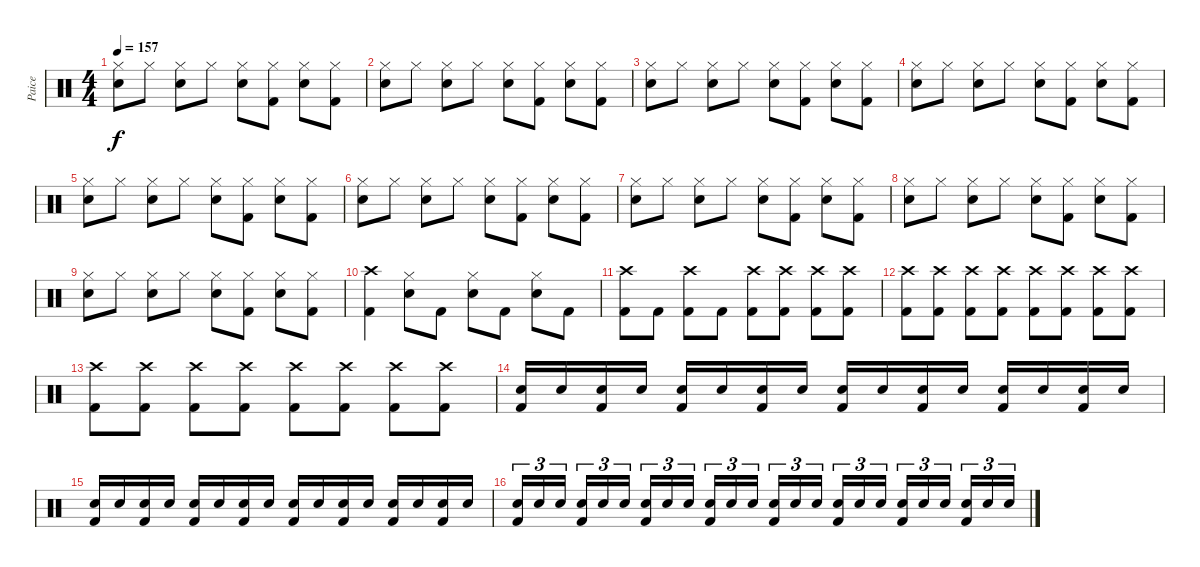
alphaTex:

\track ("Paice" "Paice") {instrument percussion}
\staff {score}
\articulation defaults
\ts (4 4)
\tempo 157
\clef neutral
\ks c
("Hi-Hat (closed)" "Snare (hit) 2").8{dy f} "Hi-Hat (closed)".8 ("Hi-Hat (closed)" "Snare (hit) 2").8 "Hi-Hat (closed)".8 ("Hi-Hat (closed)" "Snare (hit) 2").8 ("Hi-Hat (closed)" "Kick (hit) 2").8 ("Hi-Hat (closed)" "Snare (hit) 2").8 ("Hi-Hat (closed)" "Kick (hit) 2").8 |
("Hi-Hat (closed)" "Snare (hit) 2").8 "Hi-Hat (closed)".8 ("Hi-Hat (closed)" "Snare (hit) 2").8 "Hi-Hat (closed)".8 ("Hi-Hat (closed)" "Snare (hit) 2").8 ("Hi-Hat (closed)" "Kick (hit) 2").8 ("Hi-Hat (closed)" "Snare (hit) 2").8 ("Hi-Hat (closed)" "Kick (hit) 2").8 |
("Hi-Hat (closed)" "Snare (hit) 2").8 "Hi-Hat (closed)".8 ("Hi-Hat (closed)" "Snare (hit) 2").8 "Hi-Hat (closed)".8 ("Hi-Hat (closed)" "Snare (hit) 2").8 ("Hi-Hat (closed)" "Kick (hit) 2").8 ("Hi-Hat (closed)" "Snare (hit) 2").8 ("Hi-Hat (closed)" "Kick (hit) 2").8 |
("Hi-Hat (closed)" "Snare (hit) 2").8 "Hi-Hat (closed)".8 ("Hi-Hat (closed)" "Snare (hit) 2").8 "Hi-Hat (closed)".8 ("Hi-Hat (closed)" "Snare (hit) 2").8 ("Hi-Hat (closed)" "Kick (hit) 2").8 ("Hi-Hat (closed)" "Snare (hit) 2").8 ("Hi-Hat (closed)" "Kick (hit) 2").8 |
("Hi-Hat (closed)" "Snare (hit) 2").8 "Hi-Hat (closed)".8 ("Hi-Hat (closed)" "Snare (hit) 2").8 "Hi-Hat (closed)".8 ("Hi-Hat (closed)" "Snare (hit) 2").8 ("Hi-Hat (closed)" "Kick (hit) 2").8 ("Hi-Hat (closed)" "Snare (hit) 2").8 ("Hi-Hat (closed)" "Kick (hit) 2").8 |
("Hi-Hat (closed)" "Snare (hit) 2").8 "Hi-Hat (closed)".8 ("Hi-Hat (closed)" "Snare (hit) 2").8 "Hi-Hat (closed)".8 ("Hi-Hat (closed)" "Snare (hit) 2").8 ("Hi-Hat (closed)" "Kick (hit) 2").8 ("Hi-Hat (closed)" "Snare (hit) 2").8 ("Hi-Hat (closed)" "Kick (hit) 2").8 |
("Hi-Hat (closed)" "Snare (hit) 2").8 "Hi-Hat (closed)".8 ("Hi-Hat (closed)" "Snare (hit) 2").8 "Hi-Hat (closed)".8 ("Hi-Hat (closed)" "Snare (hit) 2").8 ("Hi-Hat (closed)" "Kick (hit) 2").8 ("Hi-Hat (closed)" "Snare (hit) 2").8 ("Hi-Hat (closed)" "Kick (hit) 2").8 |
("Hi-Hat (closed)" "Snare (hit) 2").8 "Hi-Hat (closed)".8 ("Hi-Hat (closed)" "Snare (hit) 2").8 "Hi-Hat (closed)".8 ("Hi-Hat (closed)" "Snare (hit) 2").8 ("Hi-Hat (closed)" "Kick (hit) 2").8 ("Hi-Hat (closed)" "Snare (hit) 2").8 ("Hi-Hat (closed)" "Kick (hit) 2").8 |
("Hi-Hat (closed)" "Snare (hit) 2").8 "Hi-Hat (closed)".8 ("Hi-Hat (closed)" "Snare (hit) 2").8 "Hi-Hat (closed)".8 ("Hi-Hat (closed)" "Snare (hit) 2").8 ("Hi-Hat (closed)" "Kick (hit) 2").8 ("Hi-Hat (closed)" "Snare (hit) 2").8 ("Hi-Hat (closed)" "Kick (hit) 2").8 |
("Crash high (hit)" "Kick (hit) 2").4{volume 14} ("Hi-Hat (closed)" "Snare (hit) 2").8 "Kick (hit) 2".8 ("Hi-Hat (closed)" "Snare (hit) 2").8 "Kick (hit) 2".8 ("Hi-Hat (closed)" "Snare (hit) 2").8 "Kick (hit) 2".8 |
("Crash high (hit)" "Kick (hit) 2").8 "Kick (hit) 2".8 ("Crash high (hit)" "Kick (hit) 2").8 "Kick (hit) 2".8 ("Crash high (hit)" "Kick (hit) 2").8 ("Crash high (hit)" "Kick (hit) 2").8 ("Crash high (hit)" "Kick (hit) 2").8 ("Crash high (hit)" "Kick (hit) 2").8 |
("Crash high (hit)" "Kick (hit) 2").8 ("Crash high (hit)" "Kick (hit) 2").8 ("Crash high (hit)" "Kick (hit) 2").8 ("Crash high (hit)" "Kick (hit) 2").8 ("Crash high (hit)" "Kick (hit) 2").8 ("Crash high (hit)" "Kick (hit) 2").8 ("Crash high (hit)" "Kick (hit) 2").8 ("Crash high (hit)" "Kick (hit) 2").8 |
("Crash high (hit)" "Kick (hit) 2").8 ("Crash high (hit)" "Kick (hit) 2").8 ("Crash high (hit)" "Kick (hit) 2").8 ("Crash high (hit)" "Kick (hit) 2").8 ("Crash high (hit)" "Kick (hit) 2").8 ("Crash high (hit)" "Kick (hit) 2").8 ("Crash high (hit)" "Kick (hit) 2").8 ("Crash high (hit)" "Kick (hit) 2").8 |
("Snare (hit) 2" "Kick (hit) 2").16 "Snare (hit) 2".16 ("Snare (hit) 2" "Kick (hit) 2").16 "Snare (hit) 2".16 ("Snare (hit) 2" "Kick (hit) 2").16 "Snare (hit) 2".16 ("Snare (hit) 2" "Kick (hit) 2").16 "Snare (hit) 2".16 ("Snare (hit) 2" "Kick (hit) 2").16 "Snare (hit) 2".16 ("Snare (hit) 2" "Kick (hit) 2").16 "Snare (hit) 2".16 ("Snare (hit) 2" "Kick (hit) 2").16 "Snare (hit) 2".16 ("Snare (hit) 2" "Kick (hit) 2").16 "Snare (hit) 2".16 |
("Snare (hit) 2" "Kick (hit) 2").16 "Snare (hit) 2".16 ("Snare (hit) 2" "Kick (hit) 2").16 "Snare (hit) 2".16 ("Snare (hit) 2" "Kick (hit) 2").16 "Snare (hit) 2".16 ("Snare (hit) 2" "Kick (hit) 2").16 "Snare (hit) 2".16 ("Snare (hit) 2" "Kick (hit) 2").16 "Snare (hit) 2".16 ("Snare (hit) 2" "Kick (hit) 2").16 "Snare (hit) 2".16 ("Snare (hit) 2" "Kick (hit) 2").16 "Snare (hit) 2".16 ("Snare (hit) 2" "Kick (hit) 2").16 "Snare (hit) 2".16 |
("Snare (hit) 2" "Kick (hit) 2").16{tu (3 2)} "Snare (hit) 2".16{tu (3 2)} "Snare (hit) 2".16{tu (3 2)} ("Snare (hit) 2" "Kick (hit) 2").16{tu (3 2)} "Snare (hit) 2".16{tu (3 2)} "Snare (hit) 2".16{tu (3 2)} ("Snare (hit) 2" "Kick (hit) 2").16{tu (3 2)} "Snare (hit) 2".16{tu (3 2)} "Snare (hit) 2".16{tu (3 2)} ("Snare (hit) 2" "Kick (hit) 2").16{tu (3 2)} "Snare (hit) 2".16{tu (3 2)} "Snare (hit) 2".16{tu (3 2)} ("Snare (hit) 2" "Kick (hit) 2").16{tu (3 2)} "Snare (hit) 2".16{tu (3 2)} "Snare (hit) 2".16{tu (3 2)} ("Snare (hit) 2" "Kick (hit) 2").16{tu (3 2)} "Snare (hit) 2".16{tu (3 2)} "Snare (hit) 2".16{tu (3 2)} ("Snare (hit) 2" "Kick (hit) 2").16{tu (3 2)} "Snare (hit) 2".16{tu (3 2)} "Snare (hit) 2".16{tu (3 2)} ("Snare (hit) 2" "Kick (hit) 2").16{tu (3 2)} "Snare (hit) 2".16{tu (3 2)} "Snare (hit) 2".16{tu (3 2)}
